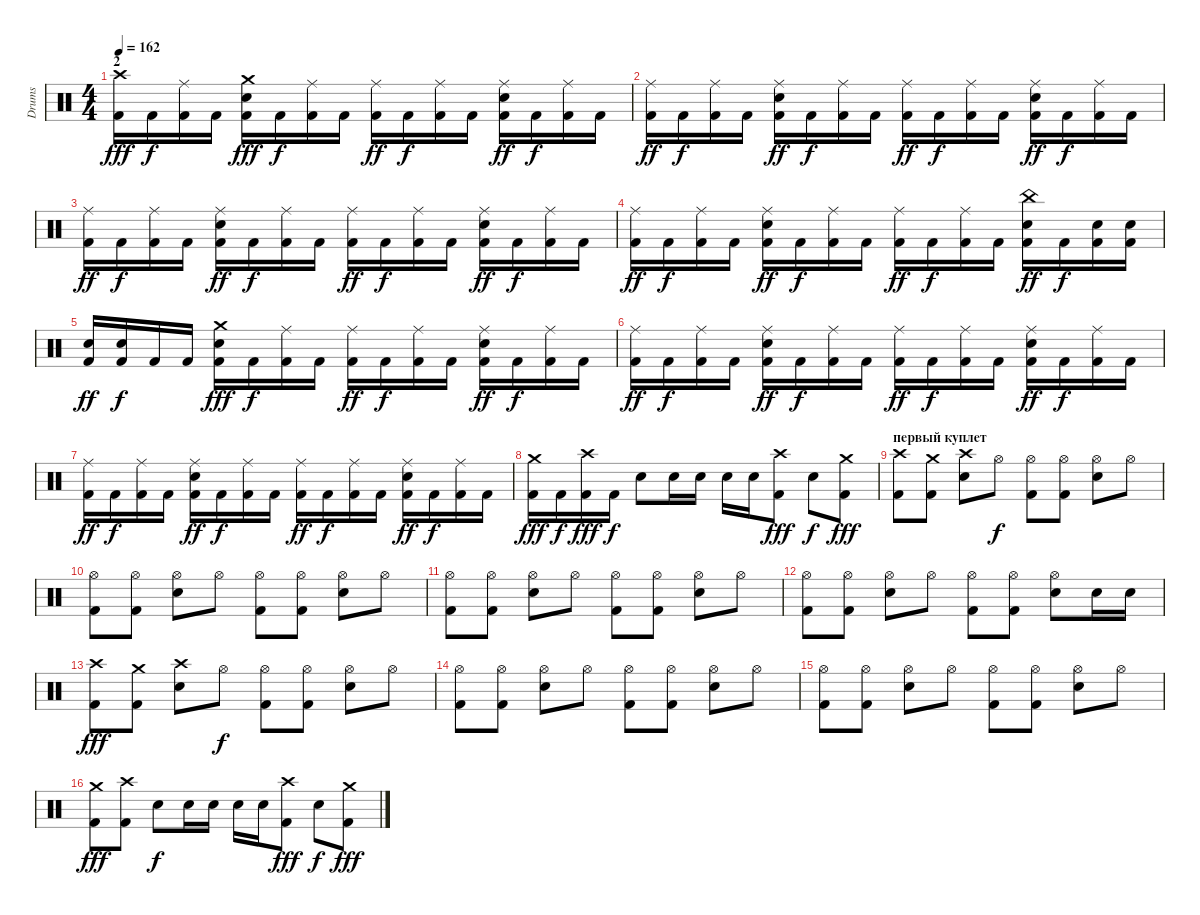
\track ("Drums" "Drums") {instrument percussion}
\staff {score}
\articulation defaults
\ts (4 4)
\section ("" "2")
\tempo 162
\clef neutral
\ks c
("Crash high (hit)" "Kick (hit) 2").16{dy fff} "Kick (hit) 2".16{dy f} ("Ride (middle)" "Kick (hit) 2").16 "Kick (hit) 2".16 ("Crash medium (hit)" "Snare (hit) 2" "Kick (hit) 2").16{dy fff} "Kick (hit) 2".16{dy f} ("Ride (middle)" "Kick (hit) 2").16 "Kick (hit) 2".16 ("Ride (middle)" "Kick (hit) 2").16{dy ff} "Kick (hit) 2".16{dy f} ("Ride (middle)" "Kick (hit) 2").16 "Kick (hit) 2".16 ("Ride (middle)" "Snare (hit) 2" "Kick (hit) 2").16{dy ff} "Kick (hit) 2".16{dy f} ("Ride (middle)" "Kick (hit) 2").16 "Kick (hit) 2".16 |
("Ride (middle)" "Kick (hit) 2").16{dy ff} "Kick (hit) 2".16{dy f} ("Ride (middle)" "Kick (hit) 2").16 "Kick (hit) 2".16 ("Ride (middle)" "Snare (hit) 2" "Kick (hit) 2").16{dy ff} "Kick (hit) 2".16{dy f} ("Ride (middle)" "Kick (hit) 2").16 "Kick (hit) 2".16 ("Ride (middle)" "Kick (hit) 2").16{dy ff} "Kick (hit) 2".16{dy f} ("Ride (middle)" "Kick (hit) 2").16 "Kick (hit) 2".16 ("Ride (middle)" "Snare (hit) 2" "Kick (hit) 2").16{dy ff} "Kick (hit) 2".16{dy f} ("Ride (middle)" "Kick (hit) 2").16 "Kick (hit) 2".16 |
("Ride (middle)" "Kick (hit) 2").16{dy ff} "Kick (hit) 2".16{dy f} ("Ride (middle)" "Kick (hit) 2").16 "Kick (hit) 2".16 ("Ride (middle)" "Snare (hit) 2" "Kick (hit) 2").16{dy ff} "Kick (hit) 2".16{dy f} ("Ride (middle)" "Kick (hit) 2").16 "Kick (hit) 2".16 ("Ride (middle)" "Kick (hit) 2").16{dy ff} "Kick (hit) 2".16{dy f} ("Ride (middle)" "Kick (hit) 2").16 "Kick (hit) 2".16 ("Ride (middle)" "Snare (hit) 2" "Kick (hit) 2").16{dy ff} "Kick (hit) 2".16{dy f} ("Ride (middle)" "Kick (hit) 2").16 "Kick (hit) 2".16 |
("Ride (middle)" "Kick (hit) 2").16{dy ff} "Kick (hit) 2".16{dy f} ("Ride (middle)" "Kick (hit) 2").16 "Kick (hit) 2".16 ("Ride (middle)" "Snare (hit) 2" "Kick (hit) 2").16{dy ff} "Kick (hit) 2".16{dy f} ("Ride (middle)" "Kick (hit) 2").16 "Kick (hit) 2".16 ("Ride (middle)" "Kick (hit) 2").16{dy ff} "Kick (hit) 2".16{dy f} ("Ride (middle)" "Kick (hit) 2").16 "Kick (hit) 2".16 ("China (hit)" "Snare (hit) 2" "Kick (hit) 2").16{dy ff} "Kick (hit) 2".16{dy f} ("Snare (hit) 2" "Kick (hit) 2").16 ("Snare (hit) 2" "Kick (hit) 2").16 |
("Snare (hit) 2" "Kick (hit) 2").16{dy ff} ("Snare (hit) 2" "Kick (hit) 2").16{dy f} "Kick (hit) 2".16 "Kick (hit) 2".16 ("Crash medium (hit)" "Snare (hit) 2" "Kick (hit) 2").16{dy fff} "Kick (hit) 2".16{dy f} ("Ride (middle)" "Kick (hit) 2").16 "Kick (hit) 2".16 ("Ride (middle)" "Kick (hit) 2").16{dy ff} "Kick (hit) 2".16{dy f} ("Ride (middle)" "Kick (hit) 2").16 "Kick (hit) 2".16 ("Ride (middle)" "Snare (hit) 2" "Kick (hit) 2").16{dy ff} "Kick (hit) 2".16{dy f} ("Ride (middle)" "Kick (hit) 2").16 "Kick (hit) 2".16 |
("Ride (middle)" "Kick (hit) 2").16{dy ff} "Kick (hit) 2".16{dy f} ("Ride (middle)" "Kick (hit) 2").16 "Kick (hit) 2".16 ("Ride (middle)" "Snare (hit) 2" "Kick (hit) 2").16{dy ff} "Kick (hit) 2".16{dy f} ("Ride (middle)" "Kick (hit) 2").16 "Kick (hit) 2".16 ("Ride (middle)" "Kick (hit) 2").16{dy ff} "Kick (hit) 2".16{dy f} ("Ride (middle)" "Kick (hit) 2").16 "Kick (hit) 2".16 ("Ride (middle)" "Snare (hit) 2" "Kick (hit) 2").16{dy ff} "Kick (hit) 2".16{dy f} ("Ride (middle)" "Kick (hit) 2").16 "Kick (hit) 2".16 |
("Ride (middle)" "Kick (hit) 2").16{dy ff} "Kick (hit) 2".16{dy f} ("Ride (middle)" "Kick (hit) 2").16 "Kick (hit) 2".16 ("Ride (middle)" "Snare (hit) 2" "Kick (hit) 2").16{dy ff} "Kick (hit) 2".16{dy f} ("Ride (middle)" "Kick (hit) 2").16 "Kick (hit) 2".16 ("Ride (middle)" "Kick (hit) 2").16{dy ff} "Kick (hit) 2".16{dy f} ("Ride (middle)" "Kick (hit) 2").16 "Kick (hit) 2".16 ("Ride (middle)" "Snare (hit) 2" "Kick (hit) 2").16{dy ff} "Kick (hit) 2".16{dy f} ("Ride (middle)" "Kick (hit) 2").16 "Kick (hit) 2".16 |
("Crash medium (hit)" "Kick (hit) 2").16{dy fff} "Kick (hit) 2".16{dy f} ("Crash high (hit)" "Kick (hit) 2").16{dy fff} "Kick (hit) 2".16{dy f} "Snare (hit) 2".8 "Snare (hit) 2".16 "Snare (hit) 2".16 "Snare (hit) 2".16 "Snare (hit) 2".16 ("Crash high (hit)" "Kick (hit) 2").8{dy fff} "Snare (hit) 2".8{dy f} ("Crash medium (hit)" "Kick (hit) 2").8{dy fff} |
\section ("" "первый куплет")
("Crash high (hit)" "Kick (hit) 2").8 ("Crash medium (hit)" "Kick (hit) 2").8 ("Crash high (hit)" "Snare (hit) 2").8 "Hi-Hat (open)".8{dy f} ("Hi-Hat (open)" "Kick (hit) 2").8 ("Hi-Hat (open)" "Kick (hit) 2").8 ("Hi-Hat (open)" "Snare (hit) 2").8 "Hi-Hat (open)".8 |
("Hi-Hat (open)" "Kick (hit) 2").8 ("Hi-Hat (open)" "Kick (hit) 2").8 ("Hi-Hat (open)" "Snare (hit) 2").8 "Hi-Hat (open)".8 ("Hi-Hat (open)" "Kick (hit) 2").8 ("Hi-Hat (open)" "Kick (hit) 2").8 ("Hi-Hat (open)" "Snare (hit) 2").8 "Hi-Hat (open)".8 |
("Hi-Hat (open)" "Kick (hit) 2").8 ("Hi-Hat (open)" "Kick (hit) 2").8 ("Hi-Hat (open)" "Snare (hit) 2").8 "Hi-Hat (open)".8 ("Hi-Hat (open)" "Kick (hit) 2").8 ("Hi-Hat (open)" "Kick (hit) 2").8 ("Hi-Hat (open)" "Snare (hit) 2").8 "Hi-Hat (open)".8 |
("Hi-Hat (open)" "Kick (hit) 2").8 ("Hi-Hat (open)" "Kick (hit) 2").8 ("Hi-Hat (open)" "Snare (hit) 2").8 "Hi-Hat (open)".8 ("Hi-Hat (open)" "Kick (hit) 2").8 ("Hi-Hat (open)" "Kick (hit) 2").8 ("Hi-Hat (open)" "Snare (hit) 2").8 "Snare (hit) 2".16 "Snare (hit) 2".16 |
("Crash high (hit)" "Kick (hit) 2").8{dy fff} ("Crash medium (hit)" "Kick (hit) 2").8 ("Crash high (hit)" "Snare (hit) 2").8 "Hi-Hat (open)".8{dy f} ("Hi-Hat (open)" "Kick (hit) 2").8 ("Hi-Hat (open)" "Kick (hit) 2").8 ("Hi-Hat (open)" "Snare (hit) 2").8 "Hi-Hat (open)".8 |
("Hi-Hat (open)" "Kick (hit) 2").8 ("Hi-Hat (open)" "Kick (hit) 2").8 ("Hi-Hat (open)" "Snare (hit) 2").8 "Hi-Hat (open)".8 ("Hi-Hat (open)" "Kick (hit) 2").8 ("Hi-Hat (open)" "Kick (hit) 2").8 ("Hi-Hat (open)" "Snare (hit) 2").8 "Hi-Hat (open)".8 |
("Hi-Hat (open)" "Kick (hit) 2").8 ("Hi-Hat (open)" "Kick (hit) 2").8 ("Hi-Hat (open)" "Snare (hit) 2").8 "Hi-Hat (open)".8 ("Hi-Hat (open)" "Kick (hit) 2").8 ("Hi-Hat (open)" "Kick (hit) 2").8 ("Hi-Hat (open)" "Snare (hit) 2").8 "Hi-Hat (open)".8 |
("Crash medium (hit)" "Kick (hit) 2").8{dy fff} ("Crash high (hit)" "Kick (hit) 2").8 "Snare (hit) 2".8{dy f} "Snare (hit) 2".16 "Snare (hit) 2".16 "Snare (hit) 2".16 "Snare (hit) 2".16 ("Crash high (hit)" "Kick (hit) 2").8{dy fff} "Snare (hit) 2".8{dy f} ("Crash medium (hit)" "Kick (hit) 2").8{dy fff}
